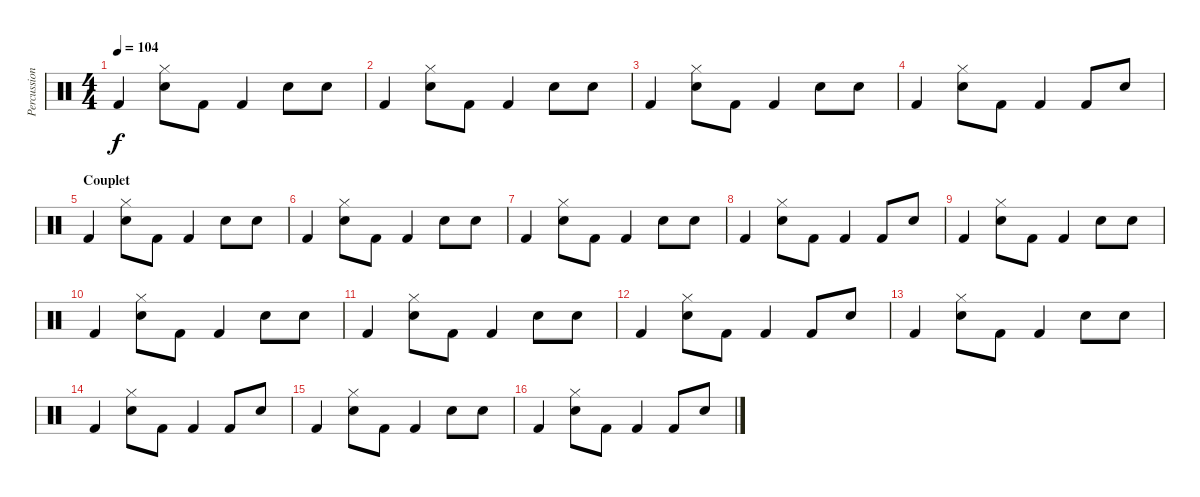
\track ("Percussions" "Percussion") {instrument percussion}
\staff {score}
\articulation defaults
\ts (4 4)
\tempo 104
\clef neutral
\ks c "Kick (hit) 2".4{dy f}
("Hi-Hat (closed)" "Snare (hit) 2").8 "Kick (hit) 2".8 "Kick (hit) 2".4 "Snare (hit) 2".8 "Electric Snare (hit)".8 |
"Kick (hit) 2".4 ("Hi-Hat (closed)" "Snare (hit) 2").8 "Kick (hit) 2".8 "Kick (hit) 2".4 "Snare (hit) 2".8 "Electric Snare (hit)".8 |
"Kick (hit) 2".4 ("Hi-Hat (closed)" "Snare (hit) 2").8 "Kick (hit) 2".8 "Kick (hit) 2".4 "Snare (hit) 2".8 "Electric Snare (hit)".8 |
"Kick (hit) 2".4 ("Hi-Hat (closed)" "Snare (hit) 2").8 "Kick (hit) 2".8 "Kick (hit) 2".4 "Kick (hit) 2".8 "Electric Snare (hit)".8 |
\section ("" "Couplet")
"Kick (hit) 2".4 ("Hi-Hat (closed)" "Snare (hit) 2").8 "Kick (hit) 2".8 "Kick (hit) 2".4 "Snare (hit) 2".8 "Electric Snare (hit)".8 |
"Kick (hit) 2".4 ("Hi-Hat (closed)" "Snare (hit) 2").8 "Kick (hit) 2".8 "Kick (hit) 2".4 "Snare (hit) 2".8 "Electric Snare (hit)".8 |
"Kick (hit) 2".4 ("Hi-Hat (closed)" "Snare (hit) 2").8 "Kick (hit) 2".8 "Kick (hit) 2".4 "Snare (hit) 2".8 "Electric Snare (hit)".8 |
"Kick (hit) 2".4 ("Hi-Hat (closed)" "Snare (hit) 2").8 "Kick (hit) 2".8 "Kick (hit) 2".4 "Kick (hit) 2".8 "Electric Snare (hit)".8 |
"Kick (hit) 2".4 ("Hi-Hat (closed)" "Snare (hit) 2").8 "Kick (hit) 2".8 "Kick (hit) 2".4 "Snare (hit) 2".8 "Electric Snare (hit)".8 |
"Kick (hit) 2".4 ("Hi-Hat (closed)" "Snare (hit) 2").8 "Kick (hit) 2".8 "Kick (hit) 2".4 "Snare (hit) 2".8 "Electric Snare (hit)".8 |
"Kick (hit) 2".4 ("Hi-Hat (closed)" "Snare (hit) 2").8 "Kick (hit) 2".8 "Kick (hit) 2".4 "Snare (hit) 2".8 "Electric Snare (hit)".8 |
"Kick (hit) 2".4 ("Hi-Hat (closed)" "Snare (hit) 2").8 "Kick (hit) 2".8 "Kick (hit) 2".4 "Kick (hit) 2".8 "Electric Snare (hit)".8 |
"Kick (hit) 2".4 ("Hi-Hat (closed)" "Snare (hit) 2").8 "Kick (hit) 2".8 "Kick (hit) 2".4 "Snare (hit) 2".8 "Electric Snare (hit)".8 |
"Kick (hit) 2".4 ("Hi-Hat (closed)" "Snare (hit) 2").8 "Kick (hit) 2".8 "Kick (hit) 2".4 "Kick (hit) 2".8 "Electric Snare (hit)".8 |
"Kick (hit) 2".4 ("Hi-Hat (closed)" "Snare (hit) 2").8 "Kick (hit) 2".8 "Kick (hit) 2".4 "Snare (hit) 2".8 "Electric Snare (hit)".8 |
"Kick (hit) 2".4 ("Hi-Hat (closed)" "Snare (hit) 2").8 "Kick (hit) 2".8 "Kick (hit) 2".4 "Kick (hit) 2".8 "Electric Snare (hit)".8
